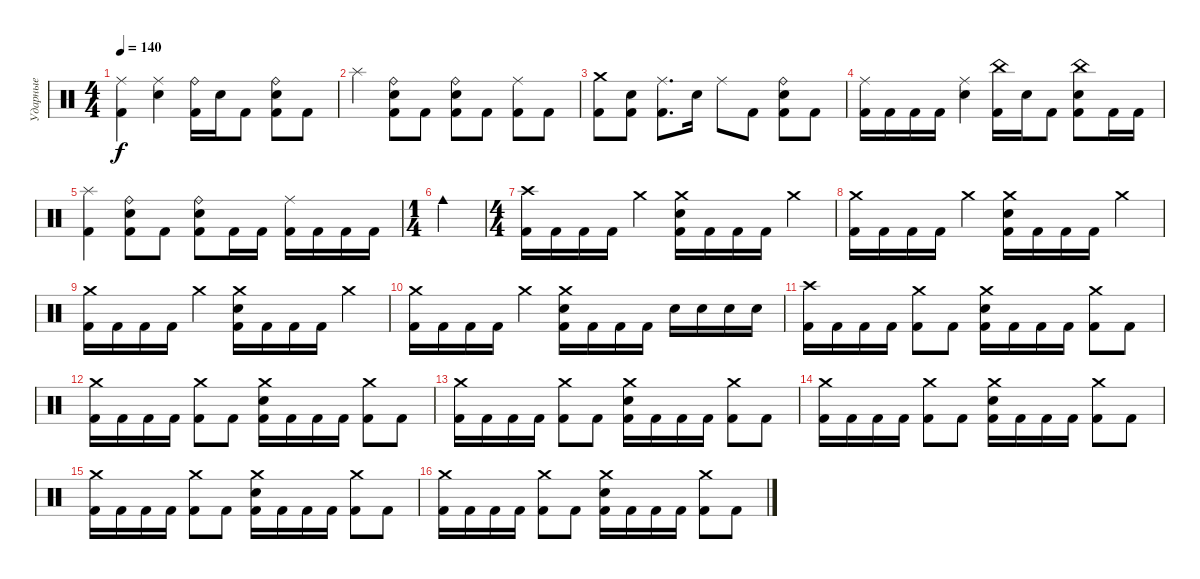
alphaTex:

\track ("Ударные" "Ударные") {instrument percussion}
\staff {score}
\articulation defaults
\ts (4 4)
\tempo 140
\clef neutral
\ks c
("Ride (middle)" "Kick (hit) 2").4{dy f} ("Ride (middle)" "Electric Snare (hit)").4 ("Ride (bell)" "Kick (hit) 2").16 "Electric Snare (hit)".16 "Kick (hit) 2".8 ("Ride (bell)" "Electric Snare (hit)" "Kick (hit) 2").8 "Kick (hit) 2".8 |
"Splash (hit)".4 ("Ride (bell)" "Electric Snare (hit)" "Kick (hit) 2").8 "Kick (hit) 2".8 ("Ride (bell)" "Electric Snare (hit)" "Kick (hit) 2").8 "Kick (hit) 2".8 ("Ride (middle)" "Kick (hit) 2").8 "Kick (hit) 2".8 |
("Crash medium (hit)" "Kick (hit) 2").8 ("Electric Snare (hit)" "Kick (hit) 2").8 ("Ride (middle)" "Kick (hit) 2").8{d} "Electric Snare (hit)".16 "Ride (middle)".8 "Kick (hit) 2".8 ("Ride (bell)" "Electric Snare (hit)" "Kick (hit) 2").8 "Kick (hit) 2".8 |
("Ride (middle)" "Kick (hit) 2").16 "Kick (hit) 2".16 "Kick (hit) 2".16 "Kick (hit) 2".16 ("Ride (middle)" "Electric Snare (hit)").4 ("China (hit)" "Kick (hit) 2").16 "Electric Snare (hit)".16 "Kick (hit) 2".8 ("China (hit)" "Electric Snare (hit)" "Kick (hit) 2").8 "Kick (hit) 2".16 "Kick (hit) 2".16 |
("Splash (hit)" "Kick (hit) 2").4 ("Ride (bell)" "Electric Snare (hit)" "Kick (hit) 2").8 "Kick (hit) 2".8 ("Ride (bell)" "Electric Snare (hit)" "Kick (hit) 2").8 "Kick (hit) 2".16 "Kick (hit) 2".16 ("Ride (middle)" "Kick (hit) 2").16 "Kick (hit) 2".16 "Kick (hit) 2".16 "Kick (hit) 2".16 |
\ts (1 4)
"Cowbell medium (hit)".4 |
\ts (4 4)
("Crash high (hit)" "Kick (hit) 2").16 "Kick (hit) 2".16 "Kick (hit) 2".16 "Kick (hit) 2".16 "Crash medium (hit)".4 ("Crash medium (hit)" "Electric Snare (hit)" "Kick (hit) 2").16 "Kick (hit) 2".16 "Kick (hit) 2".16 "Kick (hit) 2".16 "Crash medium (hit)".4 |
("Crash medium (hit)" "Kick (hit) 2").16 "Kick (hit) 2".16 "Kick (hit) 2".16 "Kick (hit) 2".16 "Crash medium (hit)".4 ("Crash medium (hit)" "Electric Snare (hit)" "Kick (hit) 2").16 "Kick (hit) 2".16 "Kick (hit) 2".16 "Kick (hit) 2".16 "Crash medium (hit)".4 |
("Crash medium (hit)" "Kick (hit) 2").16 "Kick (hit) 2".16 "Kick (hit) 2".16 "Kick (hit) 2".16 "Crash medium (hit)".4 ("Crash medium (hit)" "Electric Snare (hit)" "Kick (hit) 2").16 "Kick (hit) 2".16 "Kick (hit) 2".16 "Kick (hit) 2".16 "Crash medium (hit)".4 |
("Crash medium (hit)" "Kick (hit) 2").16 "Kick (hit) 2".16 "Kick (hit) 2".16 "Kick (hit) 2".16 "Crash medium (hit)".4 ("Crash medium (hit)" "Electric Snare (hit)" "Kick (hit) 2").16 "Kick (hit) 2".16 "Kick (hit) 2".16 "Kick (hit) 2".16 "Electric Snare (hit)".16 "Electric Snare (hit)".16 "Electric Snare (hit)".16 "Electric Snare (hit)".16 |
("Crash high (hit)" "Kick (hit) 2").16 "Kick (hit) 2".16 "Kick (hit) 2".16 "Kick (hit) 2".16 ("Crash medium (hit)" "Kick (hit) 2").8 "Kick (hit) 2".8 ("Crash medium (hit)" "Electric Snare (hit)" "Kick (hit) 2").16 "Kick (hit) 2".16 "Kick (hit) 2".16 "Kick (hit) 2".16 ("Crash medium (hit)" "Kick (hit) 2").8 "Kick (hit) 2".8 |
("Crash medium (hit)" "Kick (hit) 2").16 "Kick (hit) 2".16 "Kick (hit) 2".16 "Kick (hit) 2".16 ("Crash medium (hit)" "Kick (hit) 2").8 "Kick (hit) 2".8 ("Crash medium (hit)" "Electric Snare (hit)" "Kick (hit) 2").16 "Kick (hit) 2".16 "Kick (hit) 2".16 "Kick (hit) 2".16 ("Crash medium (hit)" "Kick (hit) 2").8 "Kick (hit) 2".8 |
("Crash medium (hit)" "Kick (hit) 2").16 "Kick (hit) 2".16 "Kick (hit) 2".16 "Kick (hit) 2".16 ("Crash medium (hit)" "Kick (hit) 2").8 "Kick (hit) 2".8 ("Crash medium (hit)" "Electric Snare (hit)" "Kick (hit) 2").16 "Kick (hit) 2".16 "Kick (hit) 2".16 "Kick (hit) 2".16 ("Crash medium (hit)" "Kick (hit) 2").8 "Kick (hit) 2".8 |
("Crash medium (hit)" "Kick (hit) 2").16 "Kick (hit) 2".16 "Kick (hit) 2".16 "Kick (hit) 2".16 ("Crash medium (hit)" "Kick (hit) 2").8 "Kick (hit) 2".8 ("Crash medium (hit)" "Electric Snare (hit)" "Kick (hit) 2").16 "Kick (hit) 2".16 "Kick (hit) 2".16 "Kick (hit) 2".16 ("Crash medium (hit)" "Kick (hit) 2").8 "Kick (hit) 2".8 |
("Crash medium (hit)" "Kick (hit) 2").16 "Kick (hit) 2".16 "Kick (hit) 2".16 "Kick (hit) 2".16 ("Crash medium (hit)" "Kick (hit) 2").8 "Kick (hit) 2".8 ("Crash medium (hit)" "Electric Snare (hit)" "Kick (hit) 2").16 "Kick (hit) 2".16 "Kick (hit) 2".16 "Kick (hit) 2".16 ("Crash medium (hit)" "Kick (hit) 2").8 "Kick (hit) 2".8 |
("Crash medium (hit)" "Kick (hit) 2").16 "Kick (hit) 2".16 "Kick (hit) 2".16 "Kick (hit) 2".16 ("Crash medium (hit)" "Kick (hit) 2").8 "Kick (hit) 2".8 ("Crash medium (hit)" "Electric Snare (hit)" "Kick (hit) 2").16 "Kick (hit) 2".16 "Kick (hit) 2".16 "Kick (hit) 2".16 ("Crash medium (hit)" "Kick (hit) 2").8 "Kick (hit) 2".8
